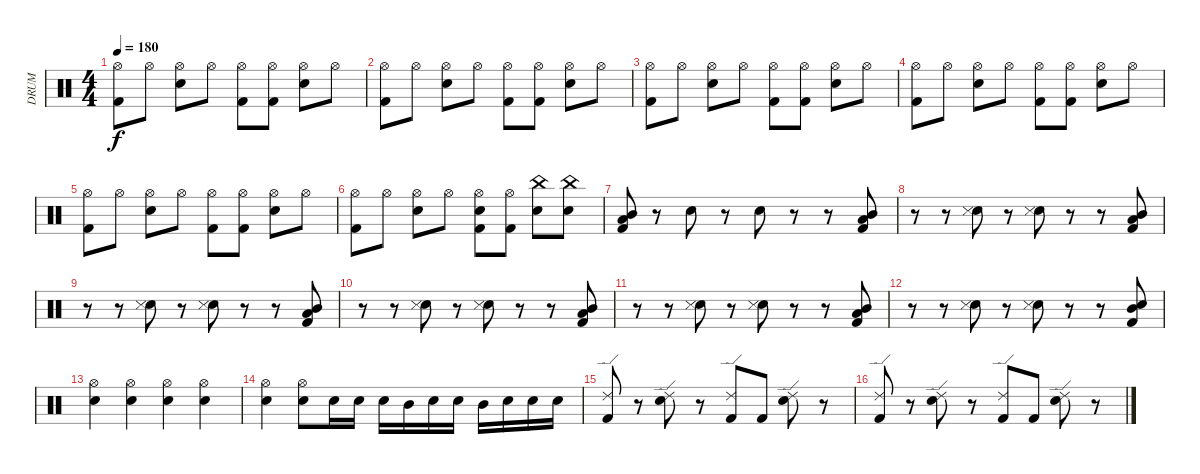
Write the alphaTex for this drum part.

\track ("DRUM" "DRUM") {instrument percussion}
\staff {score}
\articulation defaults
\ts (4 4)
\tempo 180
\clef neutral
\ks c
("Hi-Hat (open)" "Kick (hit) 2").8{dy f} "Hi-Hat (open)".8 ("Hi-Hat (open)" "Snare (hit) 2").8 "Hi-Hat (open)".8 ("Hi-Hat (open)" "Kick (hit) 2").8 ("Hi-Hat (open)" "Kick (hit) 2").8 ("Hi-Hat (open)" "Snare (hit) 2").8 "Hi-Hat (open)".8 |
("Hi-Hat (open)" "Kick (hit) 2").8 "Hi-Hat (open)".8 ("Hi-Hat (open)" "Snare (hit) 2").8 "Hi-Hat (open)".8 ("Hi-Hat (open)" "Kick (hit) 2").8 ("Hi-Hat (open)" "Kick (hit) 2").8 ("Hi-Hat (open)" "Snare (hit) 2").8 "Hi-Hat (open)".8 |
("Hi-Hat (open)" "Kick (hit) 2").8 "Hi-Hat (open)".8 ("Hi-Hat (open)" "Snare (hit) 2").8 "Hi-Hat (open)".8 ("Hi-Hat (open)" "Kick (hit) 2").8 ("Hi-Hat (open)" "Kick (hit) 2").8 ("Hi-Hat (open)" "Snare (hit) 2").8 "Hi-Hat (open)".8 |
("Hi-Hat (open)" "Kick (hit) 2").8 "Hi-Hat (open)".8 ("Hi-Hat (open)" "Snare (hit) 2").8 "Hi-Hat (open)".8 ("Hi-Hat (open)" "Kick (hit) 2").8 ("Hi-Hat (open)" "Kick (hit) 2").8 ("Hi-Hat (open)" "Snare (hit) 2").8 "Hi-Hat (open)".8 |
("Hi-Hat (open)" "Kick (hit) 2").8 "Hi-Hat (open)".8 ("Hi-Hat (open)" "Snare (hit) 2").8 "Hi-Hat (open)".8 ("Hi-Hat (open)" "Kick (hit) 2").8 ("Hi-Hat (open)" "Kick (hit) 2").8 ("Hi-Hat (open)" "Snare (hit) 2").8 "Hi-Hat (open)".8 |
("Hi-Hat (open)" "Kick (hit) 2").8 "Hi-Hat (open)".8 ("Hi-Hat (open)" "Snare (hit) 2").8 "Hi-Hat (open)".8 ("Hi-Hat (open)" "Snare (hit) 2" "Kick (hit) 2").8 ("Hi-Hat (open)" "Kick (hit) 2").8 ("China (hit)" "Snare (hit) 2").8 ("China (hit)" "Snare (hit) 2").8 |
("Mid Tom (hit)" "Low Tom (hit)" "Kick (hit) 2").8 r.8 "Snare (hit) 2".8 r.8 "Snare (hit) 2".8 r.8 r.8 ("Mid Tom (hit)" "Low Tom (hit)" "Kick (hit) 2").8 |
r.8 r.8 ("Snare (hit) 2" "Snare (side stick) 3").8 r.8 ("Snare (hit) 2" "Snare (side stick) 3").8 r.8 r.8 ("Mid Tom (hit)" "Low Tom (hit)" "Kick (hit) 2").8 |
r.8 r.8 ("Snare (hit) 2" "Snare (side stick) 3").8 r.8 ("Snare (hit) 2" "Snare (side stick) 3").8 r.8 r.8 ("Mid Tom (hit)" "Low Tom (hit)" "Kick (hit) 2").8 |
r.8 r.8 ("Snare (hit) 2" "Snare (side stick) 3").8 r.8 ("Snare (hit) 2" "Snare (side stick) 3").8 r.8 r.8 ("Mid Tom (hit)" "Low Tom (hit)" "Kick (hit) 2").8 |
r.8 r.8 ("Snare (hit) 2" "Snare (side stick) 3").8 r.8 ("Snare (hit) 2" "Snare (side stick) 3").8 r.8 r.8 ("Mid Tom (hit)" "Low Tom (hit)" "Kick (hit) 2").8 |
r.8 r.8 ("Snare (hit) 2" "Snare (side stick) 3").8 r.8 ("Snare (hit) 2" "Snare (side stick) 3").8 r.8 r.8 ("Mid Tom (hit)" "Snare (hit) 2" "Kick (hit) 2").8 |
("Hi-Hat (open)" "Snare (hit) 2").4 ("Hi-Hat (open)" "Snare (hit) 2").4 ("Hi-Hat (open)" "Snare (hit) 2").4 ("Hi-Hat (open)" "Snare (hit) 2").4 |
("Hi-Hat (open)" "Snare (hit) 2").4 ("Hi-Hat (open)" "Snare (hit) 2").8 "Snare (hit) 2".16 "Snare (hit) 2".16 "Snare (hit) 2".16 "Mid Tom (hit)".16 "Snare (hit) 2".16 "Snare (hit) 2".16 "Mid Tom (hit)".16 "Snare (hit) 2".16 "Snare (hit) 2".16 "Snare (hit) 2".16 |
("Ride (edge) 2" "Kick (hit) 2").8 r.8 ("Ride (edge) 2" "Snare (hit) 2").8 r.8 ("Ride (edge) 2" "Kick (hit) 2").8 "Kick (hit) 2".8 ("Ride (edge) 2" "Snare (hit) 2").8 r.8 |
("Ride (edge) 2" "Kick (hit) 2").8 r.8 ("Ride (edge) 2" "Snare (hit) 2").8 r.8 ("Ride (edge) 2" "Kick (hit) 2").8 "Kick (hit) 2".8 ("Ride (edge) 2" "Snare (hit) 2").8 r.8
